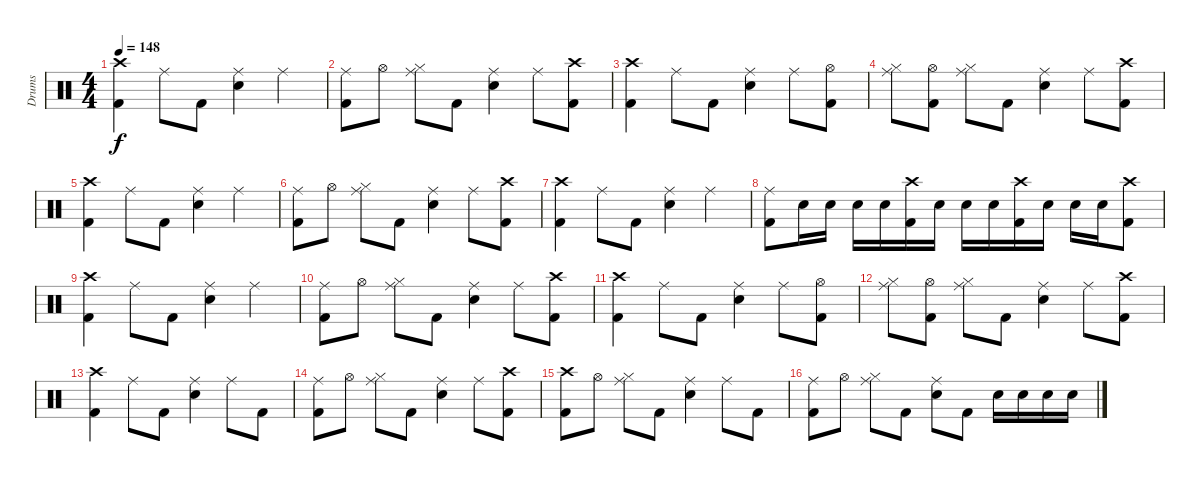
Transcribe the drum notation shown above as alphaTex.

\track ("Drums" "Drums") {instrument percussion}
\staff {score}
\articulation defaults
\ts (4 4)
\tempo 148
\clef neutral
\ks c
("Crash high (hit)" "Kick (hit) 2").4{dy f} "Ride (middle)".8 "Kick (hit) 2".8 ("Ride (middle)" "Electric Snare (hit)").4 "Ride (middle)".4 |
("Ride (middle)" "Kick (hit) 2").8 "Hi-Hat (open)".8 ("Ride (middle)" "Hi-Hat (closed)").8 "Kick (hit) 2".8 ("Ride (middle)" "Electric Snare (hit)").4 "Ride (middle)".8 ("Crash high (hit)" "Kick (hit) 2").8 |
("Crash high (hit)" "Kick (hit) 2").4 "Ride (middle)".8 "Kick (hit) 2".8 ("Ride (middle)" "Electric Snare (hit)").4 "Ride (middle)".8 ("Hi-Hat (open)" "Kick (hit) 2").8 |
("Ride (middle)" "Hi-Hat (closed)").8 ("Hi-Hat (open)" "Kick (hit) 2").8 ("Ride (middle)" "Hi-Hat (closed)").8 "Kick (hit) 2".8 ("Ride (middle)" "Electric Snare (hit)").4 "Ride (middle)".8 ("Crash high (hit)" "Kick (hit) 2").8 |
("Crash high (hit)" "Kick (hit) 2").4 "Ride (middle)".8 "Kick (hit) 2".8 ("Ride (middle)" "Electric Snare (hit)").4 "Ride (middle)".4 |
("Ride (middle)" "Kick (hit) 2").8 "Hi-Hat (open)".8 ("Ride (middle)" "Hi-Hat (closed)").8 "Kick (hit) 2".8 ("Ride (middle)" "Electric Snare (hit)").4 "Ride (middle)".8 ("Crash high (hit)" "Kick (hit) 2").8 |
("Crash high (hit)" "Kick (hit) 2").4 "Ride (middle)".8 "Kick (hit) 2".8 ("Ride (middle)" "Electric Snare (hit)").4 "Ride (middle)".4 |
("Ride (middle)" "Kick (hit) 2").8 "Electric Snare (hit)".16 "Electric Snare (hit)".16 "Electric Snare (hit)".16 "Electric Snare (hit)".16 ("Crash high (hit)" "Kick (hit) 2").16 "Electric Snare (hit)".16 "Electric Snare (hit)".16 "Electric Snare (hit)".16 ("Crash high (hit)" "Kick (hit) 2").16 "Electric Snare (hit)".16 "Electric Snare (hit)".16 "Electric Snare (hit)".16 ("Crash high (hit)" "Kick (hit) 2").8 |
("Crash high (hit)" "Kick (hit) 2").4 "Ride (middle)".8 "Kick (hit) 2".8 ("Ride (middle)" "Electric Snare (hit)").4 "Ride (middle)".4 |
("Ride (middle)" "Kick (hit) 2").8 "Hi-Hat (open)".8 ("Ride (middle)" "Hi-Hat (closed)").8 "Kick (hit) 2".8 ("Ride (middle)" "Electric Snare (hit)").4 "Ride (middle)".8 ("Crash high (hit)" "Kick (hit) 2").8 |
("Crash high (hit)" "Kick (hit) 2").4 "Ride (middle)".8 "Kick (hit) 2".8 ("Ride (middle)" "Electric Snare (hit)").4 "Ride (middle)".8 ("Hi-Hat (open)" "Kick (hit) 2").8 |
("Ride (middle)" "Hi-Hat (closed)").8 ("Hi-Hat (open)" "Kick (hit) 2").8 ("Ride (middle)" "Hi-Hat (closed)").8 "Kick (hit) 2".8 ("Ride (middle)" "Electric Snare (hit)").4 "Ride (middle)".8 ("Crash high (hit)" "Kick (hit) 2").8 |
("Crash high (hit)" "Kick (hit) 2").4 "Ride (middle)".8 "Kick (hit) 2".8 ("Ride (middle)" "Electric Snare (hit)").4 "Ride (middle)".8 "Kick (hit) 2".8 |
("Ride (middle)" "Kick (hit) 2").8 "Hi-Hat (open)".8 ("Ride (middle)" "Hi-Hat (closed)").8 "Kick (hit) 2".8 ("Ride (middle)" "Electric Snare (hit)").4 "Ride (middle)".8 ("Crash high (hit)" "Kick (hit) 2").8 |
("Crash high (hit)" "Kick (hit) 2").8 "Hi-Hat (open)".8 ("Ride (middle)" "Hi-Hat (closed)").8 "Kick (hit) 2".8 ("Ride (middle)" "Electric Snare (hit)").4 "Ride (middle)".8 "Kick (hit) 2".8 |
("Ride (middle)" "Kick (hit) 2").8 "Hi-Hat (open)".8 ("Ride (middle)" "Hi-Hat (closed)").8 "Kick (hit) 2".8 ("Ride (middle)" "Electric Snare (hit)").8 "Kick (hit) 2".8 "Electric Snare (hit)".16 "Electric Snare (hit)".16 "Electric Snare (hit)".16 "Electric Snare (hit)".16
